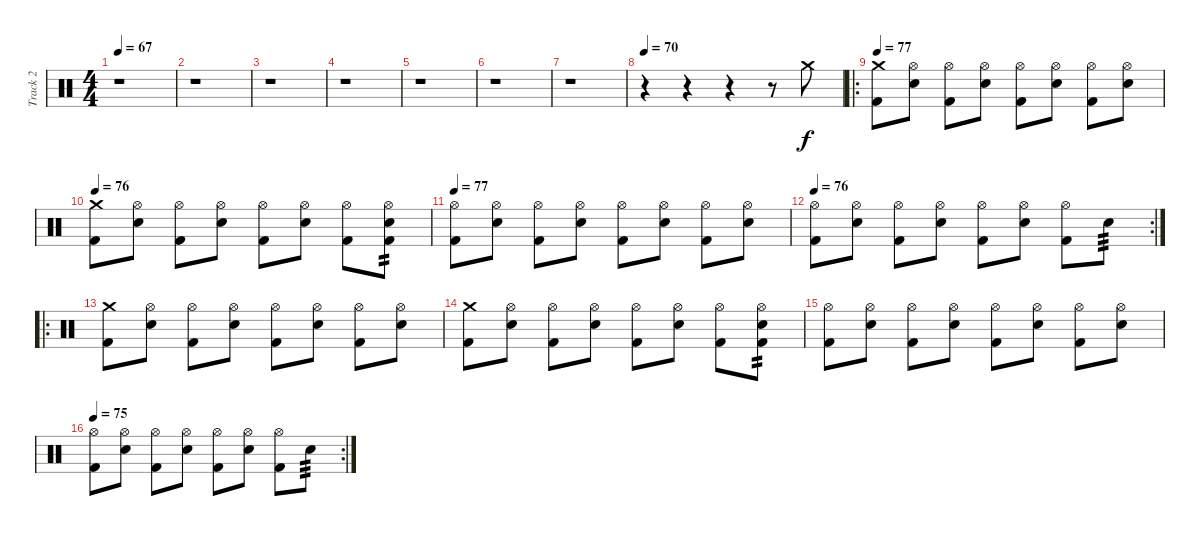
\track ("Track 2" "Track 2") {instrument percussion}
\staff {score}
\articulation defaults
\ts (4 4)
\tempo 67
\clef neutral
\ks c
r.1{dy f} |
r.1 |
r.1 |
r.1 |
r.1 |
r.1 |
r.1 |
\tempo 70
r.4 r.4 r.4 r.8 "Crash medium (hit)".8 |
\ro
\tempo 77
("Kick (hit) 2" "Crash medium (hit)").8 ("Snare (hit) 2" "Hi-Hat (open)").8 ("Kick (hit) 2" "Hi-Hat (open)").8 ("Snare (hit) 2" "Hi-Hat (open)").8 ("Kick (hit) 2" "Hi-Hat (open)").8 ("Snare (hit) 2" "Hi-Hat (open)").8 ("Kick (hit) 2" "Hi-Hat (open)").8 ("Snare (hit) 2" "Hi-Hat (open)").8 |
\tempo 76
("Kick (hit) 2" "Crash medium (hit)").8 ("Snare (hit) 2" "Hi-Hat (open)").8 ("Kick (hit) 2" "Hi-Hat (open)").8 ("Snare (hit) 2" "Hi-Hat (open)").8 ("Kick (hit) 2" "Hi-Hat (open)").8 ("Snare (hit) 2" "Hi-Hat (open)").8 ("Kick (hit) 2" "Hi-Hat (open)").8 ("Kick (hit) 2" "Snare (hit) 2" "Hi-Hat (open)").8{tp 2} |
\tempo 77
("Kick (hit) 2" "Hi-Hat (open)").8 ("Snare (hit) 2" "Hi-Hat (open)").8 ("Kick (hit) 2" "Hi-Hat (open)").8 ("Snare (hit) 2" "Hi-Hat (open)").8 ("Kick (hit) 2" "Hi-Hat (open)").8 ("Snare (hit) 2" "Hi-Hat (open)").8 ("Kick (hit) 2" "Hi-Hat (open)").8 ("Snare (hit) 2" "Hi-Hat (open)").8 |
\rc 2
\tempo 76
("Kick (hit) 2" "Hi-Hat (open)").8 ("Snare (hit) 2" "Hi-Hat (open)").8 ("Kick (hit) 2" "Hi-Hat (open)").8 ("Snare (hit) 2" "Hi-Hat (open)").8 ("Kick (hit) 2" "Hi-Hat (open)").8 ("Snare (hit) 2" "Hi-Hat (open)").8 ("Kick (hit) 2" "Hi-Hat (open)").8 "Snare (hit) 2".8{tp 3} |
\ro
("Kick (hit) 2" "Crash medium (hit)").8 ("Snare (hit) 2" "Hi-Hat (open)").8 ("Kick (hit) 2" "Hi-Hat (open)").8 ("Snare (hit) 2" "Hi-Hat (open)").8 ("Kick (hit) 2" "Hi-Hat (open)").8 ("Snare (hit) 2" "Hi-Hat (open)").8 ("Kick (hit) 2" "Hi-Hat (open)").8 ("Snare (hit) 2" "Hi-Hat (open)").8 |
("Kick (hit) 2" "Crash medium (hit)").8 ("Snare (hit) 2" "Hi-Hat (open)").8 ("Kick (hit) 2" "Hi-Hat (open)").8 ("Snare (hit) 2" "Hi-Hat (open)").8 ("Kick (hit) 2" "Hi-Hat (open)").8 ("Snare (hit) 2" "Hi-Hat (open)").8 ("Kick (hit) 2" "Hi-Hat (open)").8 ("Kick (hit) 2" "Snare (hit) 2" "Hi-Hat (open)").8{tp 2} |
("Kick (hit) 2" "Hi-Hat (open)").8 ("Snare (hit) 2" "Hi-Hat (open)").8 ("Kick (hit) 2" "Hi-Hat (open)").8 ("Snare (hit) 2" "Hi-Hat (open)").8 ("Kick (hit) 2" "Hi-Hat (open)").8 ("Snare (hit) 2" "Hi-Hat (open)").8 ("Kick (hit) 2" "Hi-Hat (open)").8 ("Snare (hit) 2" "Hi-Hat (open)").8 |
\rc 2
\tempo 75
("Kick (hit) 2" "Hi-Hat (open)").8 ("Snare (hit) 2" "Hi-Hat (open)").8 ("Kick (hit) 2" "Hi-Hat (open)").8 ("Snare (hit) 2" "Hi-Hat (open)").8 ("Kick (hit) 2" "Hi-Hat (open)").8 ("Snare (hit) 2" "Hi-Hat (open)").8 ("Kick (hit) 2" "Hi-Hat (open)").8 "Snare (hit) 2".8{tp 3}
